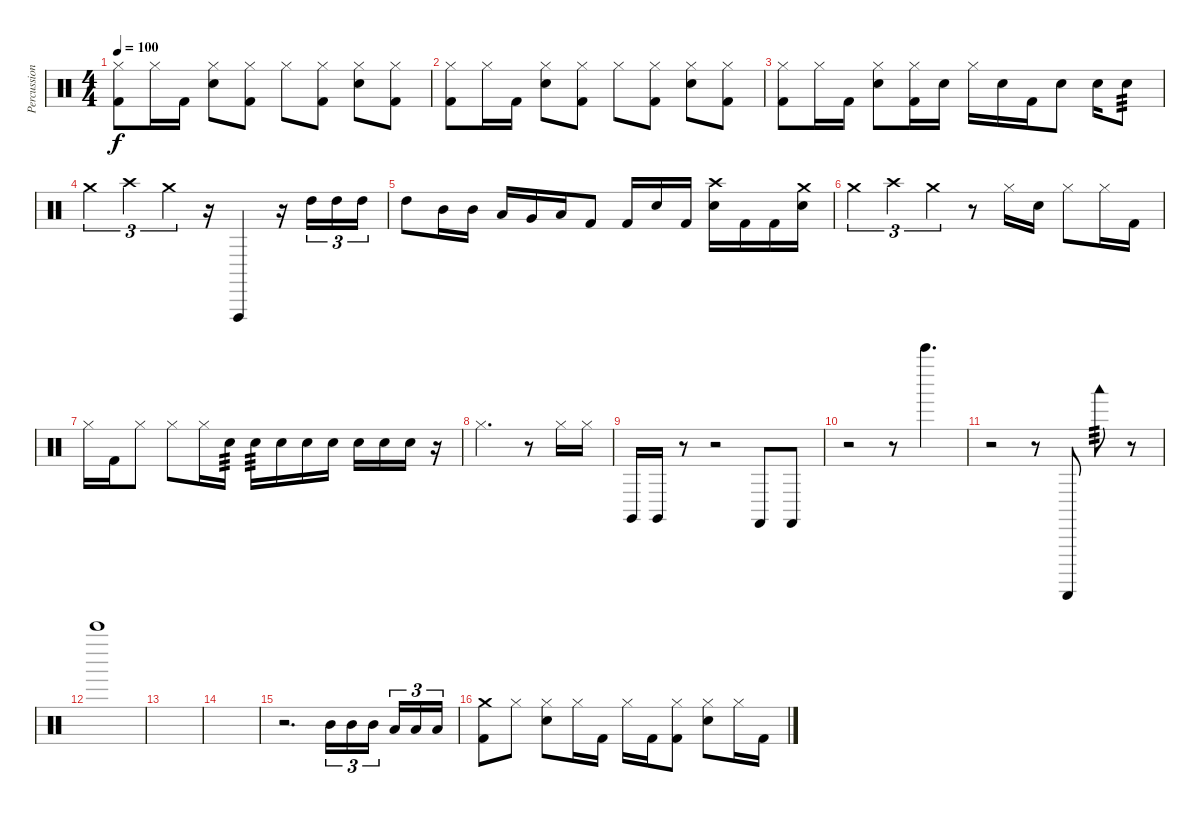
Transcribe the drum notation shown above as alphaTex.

\track ("Percussion" "Percussion") {instrument percussion}
\staff {score}
\articulation defaults
\ts (4 4)
\tempo 100
\clef neutral
\ks c
("Hi-Hat (closed)" "Kick (hit) 2").8{dy f} "Hi-Hat (closed)".16 "Kick (hit) 2".16 ("Hi-Hat (closed)" "Electric Snare (hit)").8 ("Hi-Hat (closed)" "Kick (hit) 2").8 "Hi-Hat (closed)".8 ("Hi-Hat (closed)" "Kick (hit) 2").8 ("Hi-Hat (closed)" "Electric Snare (hit)").8 ("Hi-Hat (closed)" "Kick (hit) 2").8 |
("Hi-Hat (closed)" "Kick (hit) 2").8 "Hi-Hat (closed)".16 "Kick (hit) 2".16 ("Hi-Hat (closed)" "Electric Snare (hit)").8 ("Hi-Hat (closed)" "Kick (hit) 2").8 "Hi-Hat (closed)".8 ("Hi-Hat (closed)" "Kick (hit) 2").8 ("Hi-Hat (closed)" "Electric Snare (hit)").8 ("Hi-Hat (closed)" "Kick (hit) 2").8 |
("Hi-Hat (closed)" "Kick (hit) 2").8 "Hi-Hat (closed)".16 "Kick (hit) 2".16 ("Hi-Hat (closed)" "Electric Snare (hit)").8 ("Hi-Hat (closed)" "Kick (hit) 2").16 "Electric Snare (hit)".16 "Hi-Hat (closed)".16 "Electric Snare (hit)".16 "Kick (hit) 2".16 "Electric Snare (hit)".8 "Electric Snare (hit)".16 "Electric Snare (hit)".8{tp 3} |
"Crash medium (hit)".4{tu (3 2)} "Crash high (hit)".4{tu (3 2)} "Crash medium (hit)".4{tu (3 2)} r.16 "Vibraslap (hit)".4 r.16 "High Tom (hit)".16{tu (3 2)} "High Tom (hit)".16{tu (3 2)} "High Tom (hit)".16{tu (3 2)} |
"High Tom (hit)".8 "Mid Tom (hit)".16 "Mid Tom (hit)".16 "Low Tom (hit)".16 "Very Low Tom (hit)".16 "Low Floor Tom (hit)".16 "Kick (hit) 2".8 "Kick (hit) 2".16 "Electric Snare (hit)".16 "Kick (hit) 2".16 ("Crash high (hit)" "Electric Snare (hit)").16 "Kick (hit) 2".16 "Kick (hit) 2".16 ("Crash medium (hit)" "Electric Snare (hit)").16 |
"Crash medium (hit)".4{tu (3 2)} "Crash high (hit)".4{tu (3 2)} "Crash medium (hit)".4{tu (3 2)} r.8 "Hi-Hat (closed)".16 "Electric Snare (hit)".16 "Hi-Hat (closed)".8 "Hi-Hat (closed)".16 "Kick (hit) 2".16 |
"Hi-Hat (closed)".16 "Kick (hit) 2".16 "Hi-Hat (closed)".8 "Hi-Hat (closed)".8 "Hi-Hat (closed)".16 "Electric Snare (hit)".16{tp 3} "Electric Snare (hit)".16{tp 3} "Electric Snare (hit)".16 "Electric Snare (hit)".16 "Electric Snare (hit)".16 "Electric Snare (hit)".16 "Electric Snare (hit)".16 "Electric Snare (hit)".16 r.16 |
"Hi-Hat (closed)".2{d} r.8 "Hi-Hat (closed)".16 "Hi-Hat (closed)".16 |
"Claves (hit)".16 "Claves (hit)".16 r.8 r.2 "Castanets (hit)".8 "Castanets (hit)".8 |
r.2 r.8 "Bell Tree (hit)".4{d} |
r.2 r.8 "Guiro (scrap-return)".8 "Woodblock low (hit)".8{tp 3} r.8 |
"Bell Tree (hit)".1 |
|
|
r.2{d} "Mid Tom (hit)".16{tu (3 2)} "Mid Tom (hit)".16{tu (3 2)} "Mid Tom (hit)".16{tu (3 2) beam splitsecondary} "Low Tom (hit)".16{tu (3 2)} "Low Tom (hit)".16{tu (3 2)} "Low Tom (hit)".16{tu (3 2)} |
("Crash medium (hit)" "Kick (hit) 2").8 "Hi-Hat (closed)".8 ("Hi-Hat (closed)" "Electric Snare (hit)").8 "Hi-Hat (closed)".16 "Kick (hit) 2".16 "Hi-Hat (closed)".16 "Kick (hit) 2".16 ("Hi-Hat (closed)" "Kick (hit) 2").8 ("Hi-Hat (closed)" "Electric Snare (hit)").8 "Hi-Hat (closed)".16 "Kick (hit) 2".16
